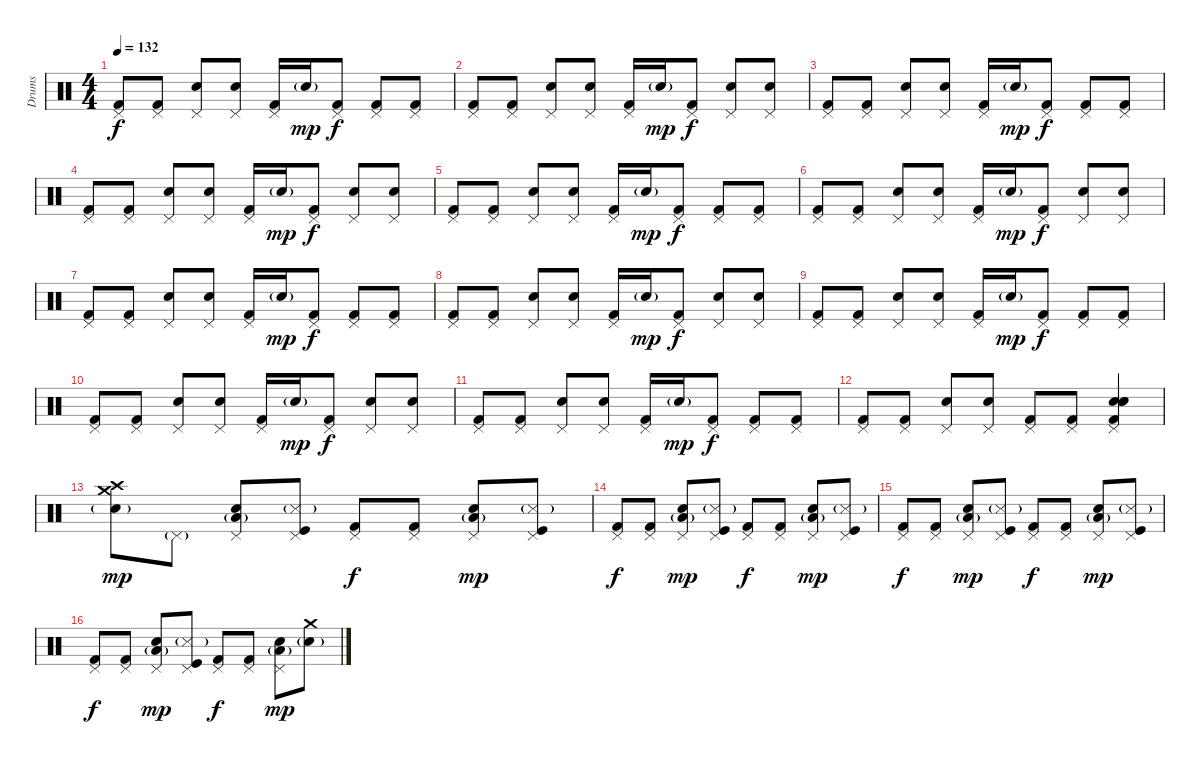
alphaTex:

\track ("Drums" "Drums") {instrument percussion}
\staff {score}
\articulation defaults
\ts (4 4)
\tempo 132
\clef neutral
\ks c
("Pedal Hi-Hat (hit)" "Kick (hit) 2").8{dy f} ("Pedal Hi-Hat (hit)" "Kick (hit) 2").8 ("Pedal Hi-Hat (hit)" "Electric Snare (hit)").8 ("Pedal Hi-Hat (hit)" "Electric Snare (hit)").8 ("Pedal Hi-Hat (hit)" "Kick (hit) 2").16 "Electric Snare (hit)"{g}.16{dy mp} ("Pedal Hi-Hat (hit)" "Kick (hit) 2").8{dy f} ("Pedal Hi-Hat (hit)" "Kick (hit) 2").8 ("Pedal Hi-Hat (hit)" "Kick (hit) 2").8 |
("Pedal Hi-Hat (hit)" "Kick (hit) 2").8 ("Pedal Hi-Hat (hit)" "Kick (hit) 2").8 ("Pedal Hi-Hat (hit)" "Electric Snare (hit)").8 ("Pedal Hi-Hat (hit)" "Electric Snare (hit)").8 ("Pedal Hi-Hat (hit)" "Kick (hit) 2").16 "Electric Snare (hit)"{g}.16{dy mp} ("Pedal Hi-Hat (hit)" "Kick (hit) 2").8{dy f} ("Pedal Hi-Hat (hit)" "Electric Snare (hit)").8 ("Pedal Hi-Hat (hit)" "Electric Snare (hit)").8 |
("Pedal Hi-Hat (hit)" "Kick (hit) 2").8 ("Pedal Hi-Hat (hit)" "Kick (hit) 2").8 ("Pedal Hi-Hat (hit)" "Electric Snare (hit)").8 ("Pedal Hi-Hat (hit)" "Electric Snare (hit)").8 ("Pedal Hi-Hat (hit)" "Kick (hit) 2").16 "Electric Snare (hit)"{g}.16{dy mp} ("Pedal Hi-Hat (hit)" "Kick (hit) 2").8{dy f} ("Pedal Hi-Hat (hit)" "Kick (hit) 2").8 ("Pedal Hi-Hat (hit)" "Kick (hit) 2").8 |
("Pedal Hi-Hat (hit)" "Kick (hit) 2").8 ("Pedal Hi-Hat (hit)" "Kick (hit) 2").8 ("Pedal Hi-Hat (hit)" "Electric Snare (hit)").8 ("Pedal Hi-Hat (hit)" "Electric Snare (hit)").8 ("Pedal Hi-Hat (hit)" "Kick (hit) 2").16 "Electric Snare (hit)"{g}.16{dy mp} ("Pedal Hi-Hat (hit)" "Kick (hit) 2").8{dy f} ("Pedal Hi-Hat (hit)" "Electric Snare (hit)").8 ("Pedal Hi-Hat (hit)" "Electric Snare (hit)").8 |
("Pedal Hi-Hat (hit)" "Kick (hit) 2").8 ("Pedal Hi-Hat (hit)" "Kick (hit) 2").8 ("Pedal Hi-Hat (hit)" "Electric Snare (hit)").8 ("Pedal Hi-Hat (hit)" "Electric Snare (hit)").8 ("Pedal Hi-Hat (hit)" "Kick (hit) 2").16 "Electric Snare (hit)"{g}.16{dy mp} ("Pedal Hi-Hat (hit)" "Kick (hit) 2").8{dy f} ("Pedal Hi-Hat (hit)" "Kick (hit) 2").8 ("Pedal Hi-Hat (hit)" "Kick (hit) 2").8 |
("Pedal Hi-Hat (hit)" "Kick (hit) 2").8 ("Pedal Hi-Hat (hit)" "Kick (hit) 2").8 ("Pedal Hi-Hat (hit)" "Electric Snare (hit)").8 ("Pedal Hi-Hat (hit)" "Electric Snare (hit)").8 ("Pedal Hi-Hat (hit)" "Kick (hit) 2").16 "Electric Snare (hit)"{g}.16{dy mp} ("Pedal Hi-Hat (hit)" "Kick (hit) 2").8{dy f} ("Pedal Hi-Hat (hit)" "Electric Snare (hit)").8 ("Pedal Hi-Hat (hit)" "Electric Snare (hit)").8 |
("Pedal Hi-Hat (hit)" "Kick (hit) 2").8 ("Pedal Hi-Hat (hit)" "Kick (hit) 2").8 ("Pedal Hi-Hat (hit)" "Electric Snare (hit)").8 ("Pedal Hi-Hat (hit)" "Electric Snare (hit)").8 ("Pedal Hi-Hat (hit)" "Kick (hit) 2").16 "Electric Snare (hit)"{g}.16{dy mp} ("Pedal Hi-Hat (hit)" "Kick (hit) 2").8{dy f} ("Pedal Hi-Hat (hit)" "Kick (hit) 2").8 ("Pedal Hi-Hat (hit)" "Kick (hit) 2").8 |
("Pedal Hi-Hat (hit)" "Kick (hit) 2").8 ("Pedal Hi-Hat (hit)" "Kick (hit) 2").8 ("Pedal Hi-Hat (hit)" "Electric Snare (hit)").8 ("Pedal Hi-Hat (hit)" "Electric Snare (hit)").8 ("Pedal Hi-Hat (hit)" "Kick (hit) 2").16 "Electric Snare (hit)"{g}.16{dy mp} ("Pedal Hi-Hat (hit)" "Kick (hit) 2").8{dy f} ("Pedal Hi-Hat (hit)" "Electric Snare (hit)").8 ("Pedal Hi-Hat (hit)" "Electric Snare (hit)").8 |
("Pedal Hi-Hat (hit)" "Kick (hit) 2").8 ("Pedal Hi-Hat (hit)" "Kick (hit) 2").8 ("Pedal Hi-Hat (hit)" "Electric Snare (hit)").8 ("Pedal Hi-Hat (hit)" "Electric Snare (hit)").8 ("Pedal Hi-Hat (hit)" "Kick (hit) 2").16 "Electric Snare (hit)"{g}.16{dy mp} ("Pedal Hi-Hat (hit)" "Kick (hit) 2").8{dy f} ("Pedal Hi-Hat (hit)" "Kick (hit) 2").8 ("Pedal Hi-Hat (hit)" "Kick (hit) 2").8 |
("Pedal Hi-Hat (hit)" "Kick (hit) 2").8 ("Pedal Hi-Hat (hit)" "Kick (hit) 2").8 ("Pedal Hi-Hat (hit)" "Electric Snare (hit)").8 ("Pedal Hi-Hat (hit)" "Electric Snare (hit)").8 ("Pedal Hi-Hat (hit)" "Kick (hit) 2").16 "Electric Snare (hit)"{g}.16{dy mp} ("Pedal Hi-Hat (hit)" "Kick (hit) 2").8{dy f} ("Pedal Hi-Hat (hit)" "Electric Snare (hit)").8 ("Pedal Hi-Hat (hit)" "Electric Snare (hit)").8 |
("Pedal Hi-Hat (hit)" "Kick (hit) 2").8 ("Pedal Hi-Hat (hit)" "Kick (hit) 2").8 ("Pedal Hi-Hat (hit)" "Electric Snare (hit)").8 ("Pedal Hi-Hat (hit)" "Electric Snare (hit)").8 ("Pedal Hi-Hat (hit)" "Kick (hit) 2").16 "Electric Snare (hit)"{g}.16{dy mp} ("Pedal Hi-Hat (hit)" "Kick (hit) 2").8{dy f} ("Pedal Hi-Hat (hit)" "Kick (hit) 2").8 ("Pedal Hi-Hat (hit)" "Kick (hit) 2").8 |
("Pedal Hi-Hat (hit)" "Kick (hit) 2").8 ("Pedal Hi-Hat (hit)" "Kick (hit) 2").8 ("Pedal Hi-Hat (hit)" "Electric Snare (hit)").8 ("Pedal Hi-Hat (hit)" "Electric Snare (hit)").8 ("Pedal Hi-Hat (hit)" "Kick (hit) 2").8 ("Pedal Hi-Hat (hit)" "Kick (hit) 2").8 ("Pedal Hi-Hat (hit)" "Electric Snare (hit)" "Electric Snare (hit)" "Electric Snare (hit)" "Kick (hit) 2").4 |
("Crash medium (hit)" "Crash high (hit)" "Electric Snare (hit)"{g}).8{dy mp} "Pedal Hi-Hat (hit)"{g}.8 ("Pedal Hi-Hat (hit)" "Electric Snare (hit)" "Low Tom (hit)"{g}).8 ("Pedal Hi-Hat (hit)" "Kick (hit)" "Snare (side stick) 3"{g}).8 ("Pedal Hi-Hat (hit)" "Kick (hit) 2").8{dy f} ("Pedal Hi-Hat (hit)" "Kick (hit) 2").8 ("Pedal Hi-Hat (hit)" "Electric Snare (hit)" "Low Tom (hit)"{g}).8{dy mp} ("Pedal Hi-Hat (hit)" "Kick (hit)" "Snare (side stick) 3"{g}).8 |
("Pedal Hi-Hat (hit)" "Kick (hit) 2").8{dy f} ("Pedal Hi-Hat (hit)" "Kick (hit) 2").8 ("Pedal Hi-Hat (hit)" "Electric Snare (hit)" "Low Tom (hit)"{g}).8{dy mp} ("Pedal Hi-Hat (hit)" "Kick (hit)" "Snare (side stick) 3"{g}).8 ("Pedal Hi-Hat (hit)" "Kick (hit) 2").8{dy f} ("Pedal Hi-Hat (hit)" "Kick (hit) 2").8 ("Pedal Hi-Hat (hit)" "Electric Snare (hit)" "Low Tom (hit)"{g}).8{dy mp} ("Pedal Hi-Hat (hit)" "Kick (hit)" "Snare (side stick) 3"{g}).8 |
("Pedal Hi-Hat (hit)" "Kick (hit) 2").8{dy f} ("Pedal Hi-Hat (hit)" "Kick (hit) 2").8 ("Pedal Hi-Hat (hit)" "Electric Snare (hit)" "Low Tom (hit)"{g}).8{dy mp} ("Pedal Hi-Hat (hit)" "Kick (hit)" "Snare (side stick) 3"{g}).8 ("Pedal Hi-Hat (hit)" "Kick (hit) 2").8{dy f} ("Pedal Hi-Hat (hit)" "Kick (hit) 2").8 ("Pedal Hi-Hat (hit)" "Electric Snare (hit)" "Low Tom (hit)"{g}).8{dy mp} ("Pedal Hi-Hat (hit)" "Kick (hit)" "Snare (side stick) 3"{g}).8 |
("Pedal Hi-Hat (hit)" "Kick (hit) 2").8{dy f} ("Pedal Hi-Hat (hit)" "Kick (hit) 2").8 ("Pedal Hi-Hat (hit)" "Electric Snare (hit)" "Low Tom (hit)"{g}).8{dy mp} ("Pedal Hi-Hat (hit)" "Kick (hit)" "Snare (side stick) 3"{g}).8 ("Pedal Hi-Hat (hit)" "Kick (hit) 2").8{dy f} ("Pedal Hi-Hat (hit)" "Kick (hit) 2").8 ("Pedal Hi-Hat (hit)" "Electric Snare (hit)" "Low Tom (hit)"{g}).8{dy mp} ("Crash medium (hit)" "Electric Snare (hit)"{g}).8
